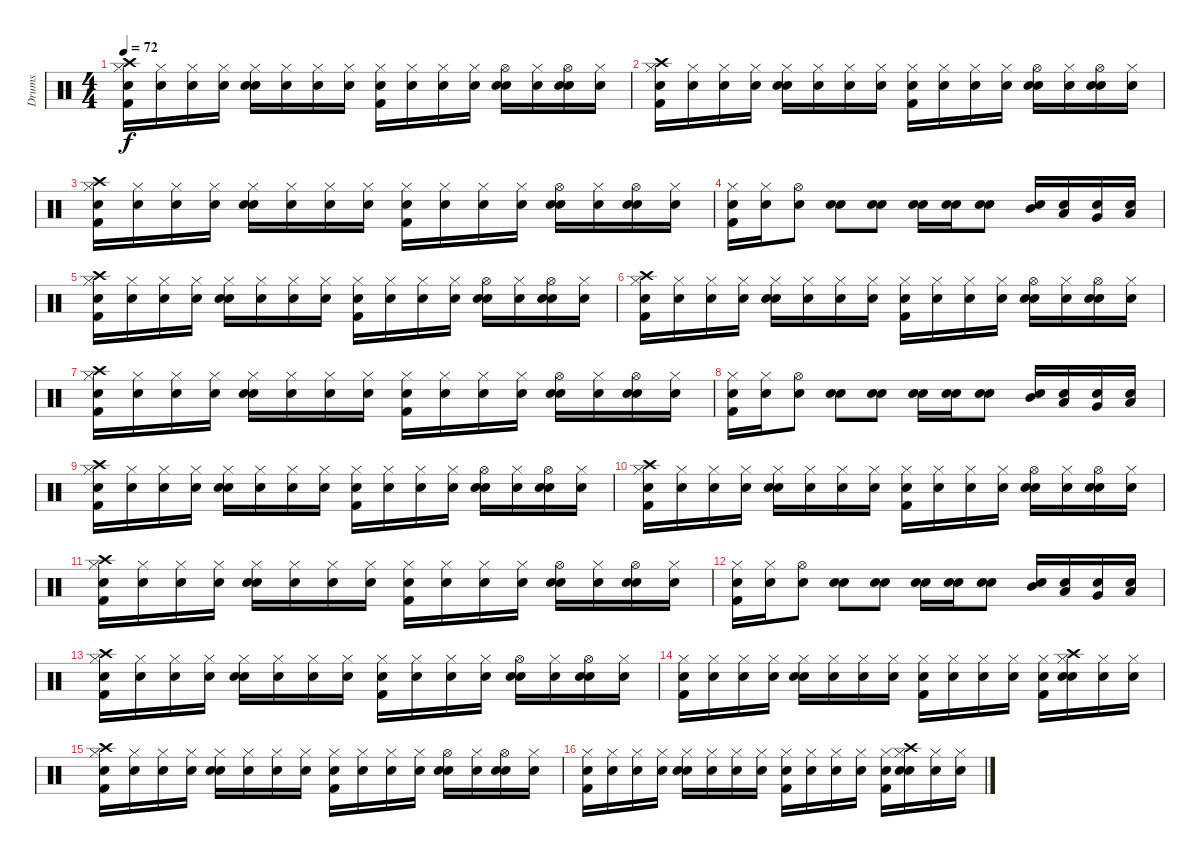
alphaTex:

\track ("Drums" "Drums") {instrument percussion}
\staff {score}
\articulation defaults
\ts (4 4)
\tempo 72
\clef neutral
\ks c
("Snare (hit)" "Kick (hit) 2" "Hi-Hat (closed)" "Crash high (hit)").16{dy f} ("Snare (hit)" "Hi-Hat (closed)").16 ("Snare (hit)" "Hi-Hat (closed)").16 ("Snare (hit)" "Hi-Hat (closed)").16 ("Snare (hit)" "Snare (hit) 2" "Hi-Hat (closed)").16 ("Snare (hit)" "Hi-Hat (closed)").16 ("Snare (hit)" "Hi-Hat (closed)").16 ("Snare (hit)" "Hi-Hat (closed)").16 ("Snare (hit)" "Kick (hit) 2" "Hi-Hat (closed)").16 ("Snare (hit)" "Hi-Hat (closed)").16 ("Snare (hit)" "Hi-Hat (closed)").16 ("Snare (hit)" "Hi-Hat (closed)").16 ("Snare (hit)" "Snare (hit) 2" "Hi-Hat (open)").16 ("Snare (hit)" "Hi-Hat (closed)").16 ("Snare (hit)" "Snare (hit) 2" "Hi-Hat (open)").16 ("Snare (hit)" "Hi-Hat (closed)").16 |
("Snare (hit)" "Kick (hit) 2" "Hi-Hat (closed)" "Crash high (hit)").16 ("Snare (hit)" "Hi-Hat (closed)").16 ("Snare (hit)" "Hi-Hat (closed)").16 ("Snare (hit)" "Hi-Hat (closed)").16 ("Snare (hit)" "Snare (hit) 2" "Hi-Hat (closed)").16 ("Snare (hit)" "Hi-Hat (closed)").16 ("Snare (hit)" "Hi-Hat (closed)").16 ("Snare (hit)" "Hi-Hat (closed)").16 ("Snare (hit)" "Kick (hit) 2" "Hi-Hat (closed)").16 ("Snare (hit)" "Hi-Hat (closed)").16 ("Snare (hit)" "Hi-Hat (closed)").16 ("Snare (hit)" "Hi-Hat (closed)").16 ("Snare (hit)" "Snare (hit) 2" "Hi-Hat (open)").16 ("Snare (hit)" "Hi-Hat (closed)").16 ("Snare (hit)" "Snare (hit) 2" "Hi-Hat (open)").16 ("Snare (hit)" "Hi-Hat (closed)").16 |
("Snare (hit)" "Kick (hit) 2" "Hi-Hat (closed)" "Crash high (hit)").16 ("Snare (hit)" "Hi-Hat (closed)").16 ("Snare (hit)" "Hi-Hat (closed)").16 ("Snare (hit)" "Hi-Hat (closed)").16 ("Snare (hit)" "Snare (hit) 2" "Hi-Hat (closed)").16 ("Snare (hit)" "Hi-Hat (closed)").16 ("Snare (hit)" "Hi-Hat (closed)").16 ("Snare (hit)" "Hi-Hat (closed)").16 ("Snare (hit)" "Kick (hit) 2" "Hi-Hat (closed)").16 ("Snare (hit)" "Hi-Hat (closed)").16 ("Snare (hit)" "Hi-Hat (closed)").16 ("Snare (hit)" "Hi-Hat (closed)").16 ("Snare (hit)" "Snare (hit) 2" "Hi-Hat (open)").16 ("Snare (hit)" "Hi-Hat (closed)").16 ("Snare (hit)" "Snare (hit) 2" "Hi-Hat (open)").16 ("Snare (hit)" "Hi-Hat (closed)").16 |
("Snare (hit)" "Kick (hit) 2" "Hi-Hat (closed)").16 ("Snare (hit)" "Hi-Hat (closed)").16 ("Snare (hit)" "Hi-Hat (open)").8 ("Snare (hit)" "Snare (hit) 2").8 ("Snare (hit)" "Snare (hit) 2").8 ("Snare (hit)" "Snare (hit) 2").16 ("Snare (hit)" "Snare (hit) 2").16 ("Snare (hit)" "Snare (hit) 2").8 ("Snare (hit)" "Mid Tom (hit)").16 ("Snare (hit)" "Low Tom (hit)").16 ("Snare (hit)" "Very Low Tom (hit)").16 ("Snare (hit)" "Low Floor Tom (hit)").16 |
("Snare (hit)" "Kick (hit) 2" "Hi-Hat (closed)" "Crash high (hit)").16 ("Snare (hit)" "Hi-Hat (closed)").16 ("Snare (hit)" "Hi-Hat (closed)").16 ("Snare (hit)" "Hi-Hat (closed)").16 ("Snare (hit)" "Snare (hit) 2" "Hi-Hat (closed)").16 ("Snare (hit)" "Hi-Hat (closed)").16 ("Snare (hit)" "Hi-Hat (closed)").16 ("Snare (hit)" "Hi-Hat (closed)").16 ("Snare (hit)" "Kick (hit) 2" "Hi-Hat (closed)").16 ("Snare (hit)" "Hi-Hat (closed)").16 ("Snare (hit)" "Hi-Hat (closed)").16 ("Snare (hit)" "Hi-Hat (closed)").16 ("Snare (hit)" "Snare (hit) 2" "Hi-Hat (open)").16 ("Snare (hit)" "Hi-Hat (closed)").16 ("Snare (hit)" "Snare (hit) 2" "Hi-Hat (open)").16 ("Snare (hit)" "Hi-Hat (closed)").16 |
("Snare (hit)" "Kick (hit) 2" "Hi-Hat (closed)" "Crash high (hit)").16 ("Snare (hit)" "Hi-Hat (closed)").16 ("Snare (hit)" "Hi-Hat (closed)").16 ("Snare (hit)" "Hi-Hat (closed)").16 ("Snare (hit)" "Snare (hit) 2" "Hi-Hat (closed)").16 ("Snare (hit)" "Hi-Hat (closed)").16 ("Snare (hit)" "Hi-Hat (closed)").16 ("Snare (hit)" "Hi-Hat (closed)").16 ("Snare (hit)" "Kick (hit) 2" "Hi-Hat (closed)").16 ("Snare (hit)" "Hi-Hat (closed)").16 ("Snare (hit)" "Hi-Hat (closed)").16 ("Snare (hit)" "Hi-Hat (closed)").16 ("Snare (hit)" "Snare (hit) 2" "Hi-Hat (open)").16 ("Snare (hit)" "Hi-Hat (closed)").16 ("Snare (hit)" "Snare (hit) 2" "Hi-Hat (open)").16 ("Snare (hit)" "Hi-Hat (closed)").16 |
("Snare (hit)" "Kick (hit) 2" "Hi-Hat (closed)" "Crash high (hit)").16 ("Snare (hit)" "Hi-Hat (closed)").16 ("Snare (hit)" "Hi-Hat (closed)").16 ("Snare (hit)" "Hi-Hat (closed)").16 ("Snare (hit)" "Snare (hit) 2" "Hi-Hat (closed)").16 ("Snare (hit)" "Hi-Hat (closed)").16 ("Snare (hit)" "Hi-Hat (closed)").16 ("Snare (hit)" "Hi-Hat (closed)").16 ("Snare (hit)" "Kick (hit) 2" "Hi-Hat (closed)").16 ("Snare (hit)" "Hi-Hat (closed)").16 ("Snare (hit)" "Hi-Hat (closed)").16 ("Snare (hit)" "Hi-Hat (closed)").16 ("Snare (hit)" "Snare (hit) 2" "Hi-Hat (open)").16 ("Snare (hit)" "Hi-Hat (closed)").16 ("Snare (hit)" "Snare (hit) 2" "Hi-Hat (open)").16 ("Snare (hit)" "Hi-Hat (closed)").16 |
("Snare (hit)" "Kick (hit) 2" "Hi-Hat (closed)").16 ("Snare (hit)" "Hi-Hat (closed)").16 ("Snare (hit)" "Hi-Hat (open)").8 ("Snare (hit)" "Snare (hit) 2").8 ("Snare (hit)" "Snare (hit) 2").8 ("Snare (hit)" "Snare (hit) 2").16 ("Snare (hit)" "Snare (hit) 2").16 ("Snare (hit)" "Snare (hit) 2").8 ("Snare (hit)" "Mid Tom (hit)").16 ("Snare (hit)" "Low Tom (hit)").16 ("Snare (hit)" "Very Low Tom (hit)").16 ("Snare (hit)" "Low Floor Tom (hit)").16 |
("Snare (hit)" "Kick (hit) 2" "Hi-Hat (closed)" "Crash high (hit)").16 ("Snare (hit)" "Hi-Hat (closed)").16 ("Snare (hit)" "Hi-Hat (closed)").16 ("Snare (hit)" "Hi-Hat (closed)").16 ("Snare (hit)" "Snare (hit) 2" "Hi-Hat (closed)").16 ("Snare (hit)" "Hi-Hat (closed)").16 ("Snare (hit)" "Hi-Hat (closed)").16 ("Snare (hit)" "Hi-Hat (closed)").16 ("Snare (hit)" "Kick (hit) 2" "Hi-Hat (closed)").16 ("Snare (hit)" "Hi-Hat (closed)").16 ("Snare (hit)" "Hi-Hat (closed)").16 ("Snare (hit)" "Hi-Hat (closed)").16 ("Snare (hit)" "Snare (hit) 2" "Hi-Hat (open)").16 ("Snare (hit)" "Hi-Hat (closed)").16 ("Snare (hit)" "Snare (hit) 2" "Hi-Hat (open)").16 ("Snare (hit)" "Hi-Hat (closed)").16 |
("Snare (hit)" "Kick (hit) 2" "Hi-Hat (closed)" "Crash high (hit)").16 ("Snare (hit)" "Hi-Hat (closed)").16 ("Snare (hit)" "Hi-Hat (closed)").16 ("Snare (hit)" "Hi-Hat (closed)").16 ("Snare (hit)" "Snare (hit) 2" "Hi-Hat (closed)").16 ("Snare (hit)" "Hi-Hat (closed)").16 ("Snare (hit)" "Hi-Hat (closed)").16 ("Snare (hit)" "Hi-Hat (closed)").16 ("Snare (hit)" "Kick (hit) 2" "Hi-Hat (closed)").16 ("Snare (hit)" "Hi-Hat (closed)").16 ("Snare (hit)" "Hi-Hat (closed)").16 ("Snare (hit)" "Hi-Hat (closed)").16 ("Snare (hit)" "Snare (hit) 2" "Hi-Hat (open)").16 ("Snare (hit)" "Hi-Hat (closed)").16 ("Snare (hit)" "Snare (hit) 2" "Hi-Hat (open)").16 ("Snare (hit)" "Hi-Hat (closed)").16 |
("Snare (hit)" "Kick (hit) 2" "Hi-Hat (closed)" "Crash high (hit)").16 ("Snare (hit)" "Hi-Hat (closed)").16 ("Snare (hit)" "Hi-Hat (closed)").16 ("Snare (hit)" "Hi-Hat (closed)").16 ("Snare (hit)" "Snare (hit) 2" "Hi-Hat (closed)").16 ("Snare (hit)" "Hi-Hat (closed)").16 ("Snare (hit)" "Hi-Hat (closed)").16 ("Snare (hit)" "Hi-Hat (closed)").16 ("Snare (hit)" "Kick (hit) 2" "Hi-Hat (closed)").16 ("Snare (hit)" "Hi-Hat (closed)").16 ("Snare (hit)" "Hi-Hat (closed)").16 ("Snare (hit)" "Hi-Hat (closed)").16 ("Snare (hit)" "Snare (hit) 2" "Hi-Hat (open)").16 ("Snare (hit)" "Hi-Hat (closed)").16 ("Snare (hit)" "Snare (hit) 2" "Hi-Hat (open)").16 ("Snare (hit)" "Hi-Hat (closed)").16 |
("Snare (hit)" "Kick (hit) 2" "Hi-Hat (closed)").16 ("Snare (hit)" "Hi-Hat (closed)").16 ("Snare (hit)" "Hi-Hat (open)").8 ("Snare (hit)" "Snare (hit) 2").8 ("Snare (hit)" "Snare (hit) 2").8 ("Snare (hit)" "Snare (hit) 2").16 ("Snare (hit)" "Snare (hit) 2").16 ("Snare (hit)" "Snare (hit) 2").8 ("Snare (hit)" "Mid Tom (hit)").16 ("Snare (hit)" "Low Tom (hit)").16 ("Snare (hit)" "Very Low Tom (hit)").16 ("Snare (hit)" "Low Floor Tom (hit)").16 |
("Snare (hit)" "Kick (hit) 2" "Hi-Hat (closed)" "Crash high (hit)").16 ("Snare (hit)" "Hi-Hat (closed)").16 ("Snare (hit)" "Hi-Hat (closed)").16 ("Snare (hit)" "Hi-Hat (closed)").16 ("Snare (hit)" "Snare (hit) 2" "Hi-Hat (closed)").16 ("Snare (hit)" "Hi-Hat (closed)").16 ("Snare (hit)" "Hi-Hat (closed)").16 ("Snare (hit)" "Hi-Hat (closed)").16 ("Snare (hit)" "Kick (hit) 2" "Hi-Hat (closed)").16 ("Snare (hit)" "Hi-Hat (closed)").16 ("Snare (hit)" "Hi-Hat (closed)").16 ("Snare (hit)" "Hi-Hat (closed)").16 ("Snare (hit)" "Snare (hit) 2" "Hi-Hat (open)").16 ("Snare (hit)" "Hi-Hat (closed)").16 ("Snare (hit)" "Snare (hit) 2" "Hi-Hat (open)").16 ("Snare (hit)" "Hi-Hat (closed)").16 |
("Snare (hit)" "Kick (hit) 2" "Hi-Hat (closed)").16 ("Snare (hit)" "Hi-Hat (closed)").16 ("Snare (hit)" "Hi-Hat (closed)").16 ("Snare (hit)" "Hi-Hat (closed)").16 ("Snare (hit)" "Snare (hit) 2" "Hi-Hat (closed)").16 ("Snare (hit)" "Hi-Hat (closed)").16 ("Snare (hit)" "Hi-Hat (closed)").16 ("Snare (hit)" "Hi-Hat (closed)").16 ("Snare (hit)" "Kick (hit) 2" "Hi-Hat (closed)").16 ("Snare (hit)" "Hi-Hat (closed)").16 ("Snare (hit)" "Hi-Hat (closed)").16 ("Snare (hit)" "Hi-Hat (closed)").16 ("Snare (hit)" "Kick (hit) 2" "Hi-Hat (closed)").16 ("Snare (hit)" "Snare (hit) 2" "Hi-Hat (closed)" "Crash high (hit)").16 ("Snare (hit)" "Hi-Hat (closed)").16 ("Snare (hit)" "Hi-Hat (closed)").16 |
("Snare (hit)" "Kick (hit) 2" "Hi-Hat (closed)" "Crash high (hit)").16 ("Snare (hit)" "Hi-Hat (closed)").16 ("Snare (hit)" "Hi-Hat (closed)").16 ("Snare (hit)" "Hi-Hat (closed)").16 ("Snare (hit)" "Snare (hit) 2" "Hi-Hat (closed)").16 ("Snare (hit)" "Hi-Hat (closed)").16 ("Snare (hit)" "Hi-Hat (closed)").16 ("Snare (hit)" "Hi-Hat (closed)").16 ("Snare (hit)" "Kick (hit) 2" "Hi-Hat (closed)").16 ("Snare (hit)" "Hi-Hat (closed)").16 ("Snare (hit)" "Hi-Hat (closed)").16 ("Snare (hit)" "Hi-Hat (closed)").16 ("Snare (hit)" "Snare (hit) 2" "Hi-Hat (open)").16 ("Snare (hit)" "Hi-Hat (closed)").16 ("Snare (hit)" "Snare (hit) 2" "Hi-Hat (open)").16 ("Snare (hit)" "Hi-Hat (closed)").16 |
("Snare (hit)" "Kick (hit) 2" "Hi-Hat (closed)").16 ("Snare (hit)" "Hi-Hat (closed)").16 ("Snare (hit)" "Hi-Hat (closed)").16 ("Snare (hit)" "Hi-Hat (closed)").16 ("Snare (hit)" "Snare (hit) 2" "Hi-Hat (closed)").16 ("Snare (hit)" "Hi-Hat (closed)").16 ("Snare (hit)" "Hi-Hat (closed)").16 ("Snare (hit)" "Hi-Hat (closed)").16 ("Snare (hit)" "Kick (hit) 2" "Hi-Hat (closed)").16 ("Snare (hit)" "Hi-Hat (closed)").16 ("Snare (hit)" "Hi-Hat (closed)").16 ("Snare (hit)" "Hi-Hat (closed)").16 ("Snare (hit)" "Kick (hit) 2" "Hi-Hat (closed)").16 ("Snare (hit)" "Snare (hit) 2" "Hi-Hat (closed)" "Crash high (hit)").16 ("Snare (hit)" "Hi-Hat (closed)").16 ("Snare (hit)" "Hi-Hat (closed)").16
